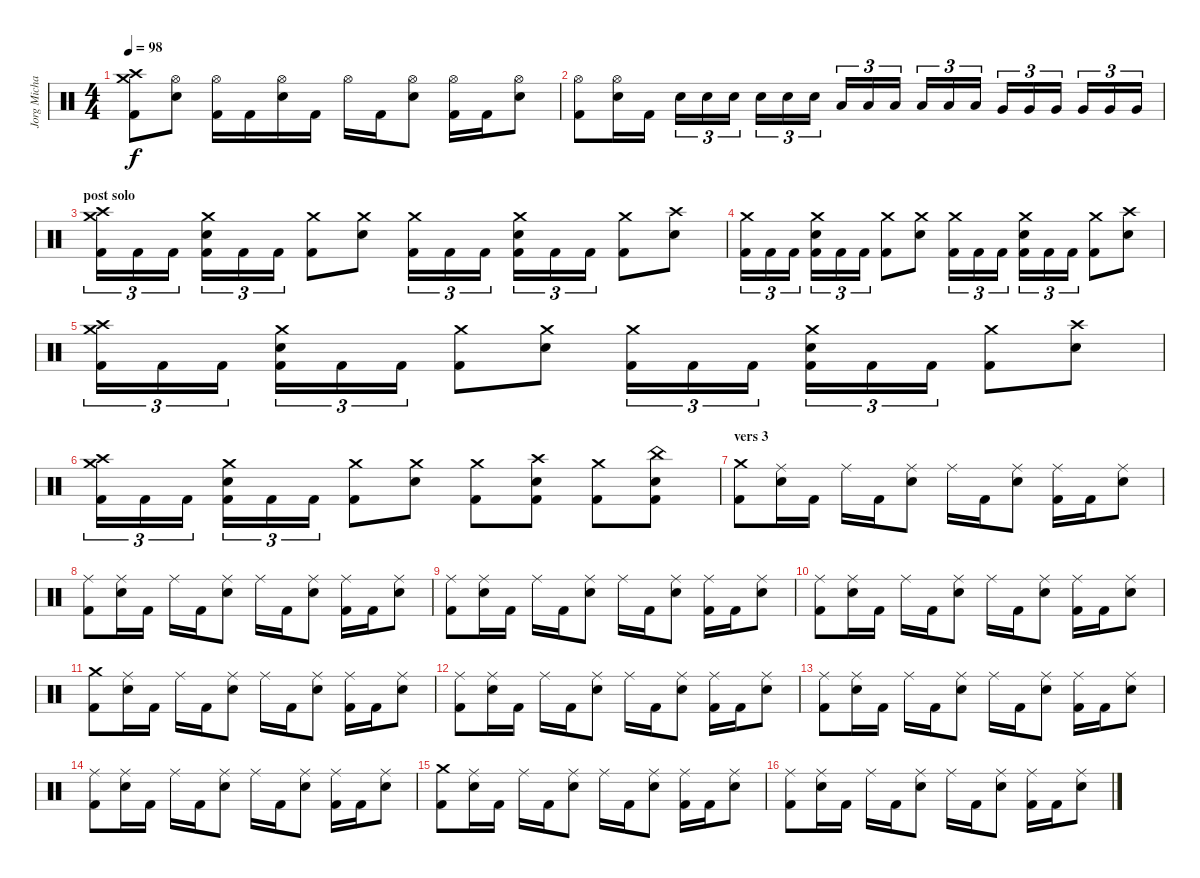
\track ("Jorg Michael" "Jorg Micha") {instrument percussion}
\staff {score}
\articulation defaults
\ts (4 4)
\tempo 98
\clef neutral
\ks c
("Crash medium (hit)" "Crash high (hit)" "Kick (hit) 2").8{dy f} ("Hi-Hat (open)" "Electric Snare (hit)").8 ("Hi-Hat (open)" "Kick (hit) 2").16 "Kick (hit) 2".16 ("Hi-Hat (open)" "Electric Snare (hit)").16 "Kick (hit) 2".16 "Hi-Hat (open)".16 "Kick (hit) 2".16 ("Hi-Hat (open)" "Electric Snare (hit)").8 ("Hi-Hat (open)" "Kick (hit) 2").16 "Kick (hit) 2".16 ("Hi-Hat (open)" "Electric Snare (hit)").8 |
("Hi-Hat (open)" "Kick (hit) 2").8 ("Hi-Hat (open)" "Electric Snare (hit)").16 "Kick (hit) 2".16 "Electric Snare (hit)".16{tu (3 2)} "Electric Snare (hit)".16{tu (3 2)} "Electric Snare (hit)".16{tu (3 2)} "Electric Snare (hit)".16{tu (3 2)} "Electric Snare (hit)".16{tu (3 2)} "Electric Snare (hit)".16{tu (3 2)} "Low Tom (hit)".16{tu (3 2)} "Low Tom (hit)".16{tu (3 2)} "Low Tom (hit)".16{tu (3 2)} "Low Tom (hit)".16{tu (3 2)} "Low Tom (hit)".16{tu (3 2)} "Low Tom (hit)".16{tu (3 2)} "Very Low Tom (hit)".16{tu (3 2)} "Very Low Tom (hit)".16{tu (3 2)} "Very Low Tom (hit)".16{tu (3 2)} "Very Low Tom (hit)".16{tu (3 2)} "Very Low Tom (hit)".16{tu (3 2)} "Very Low Tom (hit)".16{tu (3 2)} |
\section ("" "post solo")
("Crash medium (hit)" "Crash high (hit)" "Kick (hit) 2").16{tu (3 2)} "Kick (hit) 2".16{tu (3 2)} "Kick (hit) 2".16{tu (3 2)} ("Crash medium (hit)" "Electric Snare (hit)" "Kick (hit) 2").16{tu (3 2)} "Kick (hit) 2".16{tu (3 2)} "Kick (hit) 2".16{tu (3 2)} ("Crash medium (hit)" "Kick (hit) 2").8 ("Crash medium (hit)" "Electric Snare (hit)").8 ("Crash medium (hit)" "Kick (hit) 2").16{tu (3 2)} "Kick (hit) 2".16{tu (3 2)} "Kick (hit) 2".16{tu (3 2)} ("Crash medium (hit)" "Electric Snare (hit)" "Kick (hit) 2").16{tu (3 2)} "Kick (hit) 2".16{tu (3 2)} "Kick (hit) 2".16{tu (3 2)} ("Crash medium (hit)" "Kick (hit) 2").8 ("Crash high (hit)" "Electric Snare (hit)").8 |
("Crash medium (hit)" "Kick (hit) 2").16{tu (3 2)} "Kick (hit) 2".16{tu (3 2)} "Kick (hit) 2".16{tu (3 2)} ("Crash medium (hit)" "Electric Snare (hit)" "Kick (hit) 2").16{tu (3 2)} "Kick (hit) 2".16{tu (3 2)} "Kick (hit) 2".16{tu (3 2)} ("Crash medium (hit)" "Kick (hit) 2").8 ("Crash medium (hit)" "Electric Snare (hit)").8 ("Crash medium (hit)" "Kick (hit) 2").16{tu (3 2)} "Kick (hit) 2".16{tu (3 2)} "Kick (hit) 2".16{tu (3 2)} ("Crash medium (hit)" "Electric Snare (hit)" "Kick (hit) 2").16{tu (3 2)} "Kick (hit) 2".16{tu (3 2)} "Kick (hit) 2".16{tu (3 2)} ("Crash medium (hit)" "Kick (hit) 2").8 ("Crash high (hit)" "Electric Snare (hit)").8 |
("Crash medium (hit)" "Crash high (hit)" "Kick (hit) 2").16{tu (3 2)} "Kick (hit) 2".16{tu (3 2)} "Kick (hit) 2".16{tu (3 2)} ("Crash medium (hit)" "Electric Snare (hit)" "Kick (hit) 2").16{tu (3 2)} "Kick (hit) 2".16{tu (3 2)} "Kick (hit) 2".16{tu (3 2)} ("Crash medium (hit)" "Kick (hit) 2").8 ("Crash medium (hit)" "Electric Snare (hit)").8 ("Crash medium (hit)" "Kick (hit) 2").16{tu (3 2)} "Kick (hit) 2".16{tu (3 2)} "Kick (hit) 2".16{tu (3 2)} ("Crash medium (hit)" "Electric Snare (hit)" "Kick (hit) 2").16{tu (3 2)} "Kick (hit) 2".16{tu (3 2)} "Kick (hit) 2".16{tu (3 2)} ("Crash medium (hit)" "Kick (hit) 2").8 ("Crash high (hit)" "Electric Snare (hit)").8 |
("Crash medium (hit)" "Crash high (hit)" "Kick (hit) 2").16{tu (3 2)} "Kick (hit) 2".16{tu (3 2)} "Kick (hit) 2".16{tu (3 2)} ("Crash medium (hit)" "Electric Snare (hit)" "Kick (hit) 2").16{tu (3 2)} "Kick (hit) 2".16{tu (3 2)} "Kick (hit) 2".16{tu (3 2)} ("Crash medium (hit)" "Kick (hit) 2").8 ("Crash medium (hit)" "Electric Snare (hit)").8 ("Crash medium (hit)" "Kick (hit) 2").8 ("Crash high (hit)" "Electric Snare (hit)" "Kick (hit) 2").8 ("Crash medium (hit)" "Kick (hit) 2").8 ("China (hit)" "Electric Snare (hit)" "Kick (hit) 2").8 |
\section ("" "vers 3")
("Crash medium (hit)" "Kick (hit) 2").8 ("Ride (middle)" "Electric Snare (hit)").16 "Kick (hit) 2".16 "Ride (middle)".16 "Kick (hit) 2".16 ("Ride (middle)" "Electric Snare (hit)").8 "Ride (middle)".16 "Kick (hit) 2".16 ("Ride (middle)" "Electric Snare (hit)").8 ("Ride (middle)" "Kick (hit) 2").16 "Kick (hit) 2".16 ("Ride (middle)" "Electric Snare (hit)").8 |
("Ride (middle)" "Kick (hit) 2").8 ("Ride (middle)" "Electric Snare (hit)").16 "Kick (hit) 2".16 "Ride (middle)".16 "Kick (hit) 2".16 ("Ride (middle)" "Electric Snare (hit)").8 "Ride (middle)".16 "Kick (hit) 2".16 ("Ride (middle)" "Electric Snare (hit)").8 ("Ride (middle)" "Kick (hit) 2").16 "Kick (hit) 2".16 ("Ride (middle)" "Electric Snare (hit)").8 |
("Ride (middle)" "Kick (hit) 2").8 ("Ride (middle)" "Electric Snare (hit)").16 "Kick (hit) 2".16 "Ride (middle)".16 "Kick (hit) 2".16 ("Ride (middle)" "Electric Snare (hit)").8 "Ride (middle)".16 "Kick (hit) 2".16 ("Ride (middle)" "Electric Snare (hit)").8 ("Ride (middle)" "Kick (hit) 2").16 "Kick (hit) 2".16 ("Ride (middle)" "Electric Snare (hit)").8 |
("Ride (middle)" "Kick (hit) 2").8 ("Ride (middle)" "Electric Snare (hit)").16 "Kick (hit) 2".16 "Ride (middle)".16 "Kick (hit) 2".16 ("Ride (middle)" "Electric Snare (hit)").8 "Ride (middle)".16 "Kick (hit) 2".16 ("Ride (middle)" "Electric Snare (hit)").8 ("Ride (middle)" "Kick (hit) 2").16 "Kick (hit) 2".16 ("Ride (middle)" "Electric Snare (hit)").8 |
("Crash medium (hit)" "Kick (hit) 2").8 ("Ride (middle)" "Electric Snare (hit)").16 "Kick (hit) 2".16 "Ride (middle)".16 "Kick (hit) 2".16 ("Ride (middle)" "Electric Snare (hit)").8 "Ride (middle)".16 "Kick (hit) 2".16 ("Ride (middle)" "Electric Snare (hit)").8 ("Ride (middle)" "Kick (hit) 2").16 "Kick (hit) 2".16 ("Ride (middle)" "Electric Snare (hit)").8 |
("Ride (middle)" "Kick (hit) 2").8 ("Ride (middle)" "Electric Snare (hit)").16 "Kick (hit) 2".16 "Ride (middle)".16 "Kick (hit) 2".16 ("Ride (middle)" "Electric Snare (hit)").8 "Ride (middle)".16 "Kick (hit) 2".16 ("Ride (middle)" "Electric Snare (hit)").8 ("Ride (middle)" "Kick (hit) 2").16 "Kick (hit) 2".16 ("Ride (middle)" "Electric Snare (hit)").8 |
("Ride (middle)" "Kick (hit) 2").8 ("Ride (middle)" "Electric Snare (hit)").16 "Kick (hit) 2".16 "Ride (middle)".16 "Kick (hit) 2".16 ("Ride (middle)" "Electric Snare (hit)").8 "Ride (middle)".16 "Kick (hit) 2".16 ("Ride (middle)" "Electric Snare (hit)").8 ("Ride (middle)" "Kick (hit) 2").16 "Kick (hit) 2".16 ("Ride (middle)" "Electric Snare (hit)").8 |
("Ride (middle)" "Kick (hit) 2").8 ("Ride (middle)" "Electric Snare (hit)").16 "Kick (hit) 2".16 "Ride (middle)".16 "Kick (hit) 2".16 ("Ride (middle)" "Electric Snare (hit)").8 "Ride (middle)".16 "Kick (hit) 2".16 ("Ride (middle)" "Electric Snare (hit)").8 ("Ride (middle)" "Kick (hit) 2").16 "Kick (hit) 2".16 ("Ride (middle)" "Electric Snare (hit)").8 |
("Crash medium (hit)" "Kick (hit) 2").8 ("Ride (middle)" "Electric Snare (hit)").16 "Kick (hit) 2".16 "Ride (middle)".16 "Kick (hit) 2".16 ("Ride (middle)" "Electric Snare (hit)").8 "Ride (middle)".16 "Kick (hit) 2".16 ("Ride (middle)" "Electric Snare (hit)").8 ("Ride (middle)" "Kick (hit) 2").16 "Kick (hit) 2".16 ("Ride (middle)" "Electric Snare (hit)").8 |
("Ride (middle)" "Kick (hit) 2").8 ("Ride (middle)" "Electric Snare (hit)").16 "Kick (hit) 2".16 "Ride (middle)".16 "Kick (hit) 2".16 ("Ride (middle)" "Electric Snare (hit)").8 "Ride (middle)".16 "Kick (hit) 2".16 ("Ride (middle)" "Electric Snare (hit)").8 ("Ride (middle)" "Kick (hit) 2").16 "Kick (hit) 2".16 ("Ride (middle)" "Electric Snare (hit)").8
